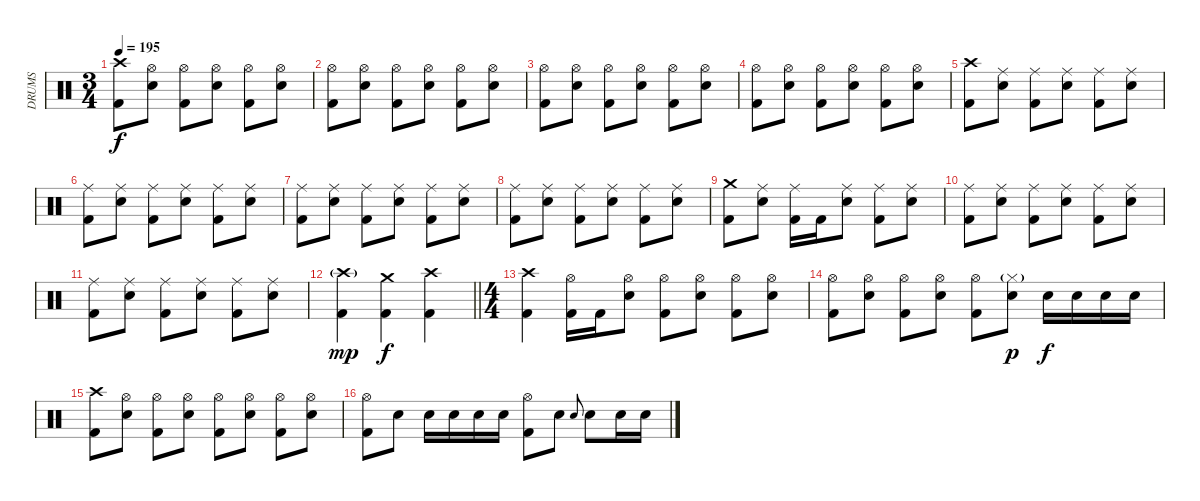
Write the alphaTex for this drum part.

\track ("DRUMS" "DRUMS") {instrument percussion}
\staff {score}
\articulation defaults
\ts (3 4)
\tempo 195
\clef neutral
\ks c
("Crash high (hit)" "Kick (hit) 2").8{dy f} ("Hi-Hat (open)" "Snare (hit) 2").8 ("Hi-Hat (open)" "Kick (hit) 2").8 ("Hi-Hat (open)" "Snare (hit) 2").8 ("Hi-Hat (open)" "Kick (hit) 2").8 ("Hi-Hat (open)" "Snare (hit) 2").8 |
("Hi-Hat (open)" "Kick (hit) 2").8 ("Hi-Hat (open)" "Snare (hit) 2").8 ("Hi-Hat (open)" "Kick (hit) 2").8 ("Hi-Hat (open)" "Snare (hit) 2").8 ("Hi-Hat (open)" "Kick (hit) 2").8 ("Hi-Hat (open)" "Snare (hit) 2").8 |
("Hi-Hat (open)" "Kick (hit) 2").8 ("Hi-Hat (open)" "Snare (hit) 2").8 ("Hi-Hat (open)" "Kick (hit) 2").8 ("Hi-Hat (open)" "Snare (hit) 2").8 ("Hi-Hat (open)" "Kick (hit) 2").8 ("Hi-Hat (open)" "Snare (hit) 2").8 |
("Hi-Hat (open)" "Kick (hit) 2").8 ("Hi-Hat (open)" "Snare (hit) 2").8 ("Hi-Hat (open)" "Kick (hit) 2").8 ("Hi-Hat (open)" "Snare (hit) 2").8 ("Hi-Hat (open)" "Kick (hit) 2").8 ("Hi-Hat (open)" "Snare (hit) 2").8 |
("Crash high (hit)" "Kick (hit) 2").8 ("Ride (middle)" "Snare (hit) 2").8 ("Ride (middle)" "Kick (hit) 2").8 ("Ride (middle)" "Snare (hit) 2").8 ("Ride (middle)" "Kick (hit) 2").8 ("Ride (middle)" "Snare (hit) 2").8 |
("Ride (middle)" "Kick (hit) 2").8 ("Ride (middle)" "Snare (hit) 2").8 ("Ride (middle)" "Kick (hit) 2").8 ("Ride (middle)" "Snare (hit) 2").8 ("Ride (middle)" "Kick (hit) 2").8 ("Ride (middle)" "Snare (hit) 2").8 |
("Ride (middle)" "Kick (hit) 2").8 ("Ride (middle)" "Snare (hit) 2").8 ("Ride (middle)" "Kick (hit) 2").8 ("Ride (middle)" "Snare (hit) 2").8 ("Ride (middle)" "Kick (hit) 2").8 ("Ride (middle)" "Snare (hit) 2").8 |
("Ride (middle)" "Kick (hit) 2").8 ("Ride (middle)" "Snare (hit) 2").8 ("Ride (middle)" "Kick (hit) 2").8 ("Ride (middle)" "Snare (hit) 2").8 ("Ride (middle)" "Kick (hit) 2").8 ("Ride (middle)" "Snare (hit) 2").8 |
("Crash medium (hit)" "Kick (hit) 2").8 ("Ride (middle)" "Snare (hit) 2").8 ("Ride (middle)" "Kick (hit) 2").16 "Kick (hit) 2".16 ("Ride (middle)" "Snare (hit) 2").8 ("Ride (middle)" "Kick (hit) 2").8 ("Ride (middle)" "Snare (hit) 2").8 |
("Ride (middle)" "Kick (hit) 2").8 ("Ride (middle)" "Snare (hit) 2").8 ("Ride (middle)" "Kick (hit) 2").8 ("Ride (middle)" "Snare (hit) 2").8 ("Ride (middle)" "Kick (hit) 2").8 ("Ride (middle)" "Snare (hit) 2").8 |
("Ride (middle)" "Kick (hit) 2").8 ("Ride (middle)" "Snare (hit) 2").8 ("Ride (middle)" "Kick (hit) 2").8 ("Ride (middle)" "Snare (hit) 2").8 ("Ride (middle)" "Kick (hit) 2").8 ("Ride (middle)" "Snare (hit) 2").8 |
\barLineRight lightlight
("Crash high (hit)"{g} "Kick (hit) 2").4{dy mp} ("Crash medium (hit)" "Kick (hit) 2").4{dy f} ("Crash high (hit)" "Kick (hit) 2").4 |
\ts (4 4)
("Crash high (hit)" "Kick (hit) 2").4 ("Hi-Hat (open)" "Kick (hit) 2").16 "Kick (hit) 2".16 ("Hi-Hat (open)" "Snare (hit) 2").8 ("Hi-Hat (open)" "Kick (hit) 2").8 ("Hi-Hat (open)" "Snare (hit) 2").8 ("Hi-Hat (open)" "Kick (hit) 2").8 ("Hi-Hat (open)" "Snare (hit) 2").8 |
("Hi-Hat (open)" "Kick (hit) 2").8 ("Hi-Hat (open)" "Snare (hit) 2").8 ("Hi-Hat (open)" "Kick (hit) 2").8 ("Hi-Hat (open)" "Snare (hit) 2").8 ("Hi-Hat (open)" "Kick (hit) 2").8 ("Hi-Hat (closed)"{g} "Snare (hit) 2").8{dy p} "Snare (hit) 2".16{dy f} "Snare (hit) 2".16 "Snare (hit) 2".16 "Snare (hit) 2".16 |
("Crash high (hit)" "Kick (hit) 2").8 ("Hi-Hat (open)" "Snare (hit) 2").8 ("Hi-Hat (open)" "Kick (hit) 2").8 ("Hi-Hat (open)" "Snare (hit) 2").8 ("Hi-Hat (open)" "Kick (hit) 2").8 ("Hi-Hat (open)" "Snare (hit) 2").8 ("Hi-Hat (open)" "Kick (hit) 2").8 ("Hi-Hat (open)" "Snare (hit) 2").8 |
("Hi-Hat (open)" "Kick (hit) 2").8 "Snare (hit) 2".8 "Snare (hit) 2".16 "Snare (hit) 2".16 "Snare (hit) 2".16 "Snare (hit) 2".16 ("Hi-Hat (open)" "Kick (hit) 2").8 "Snare (hit) 2".8 "Snare (hit) 2".8{gr onbeat} "Snare (hit) 2".8 "Snare (hit) 2".16 "Snare (hit) 2".16
